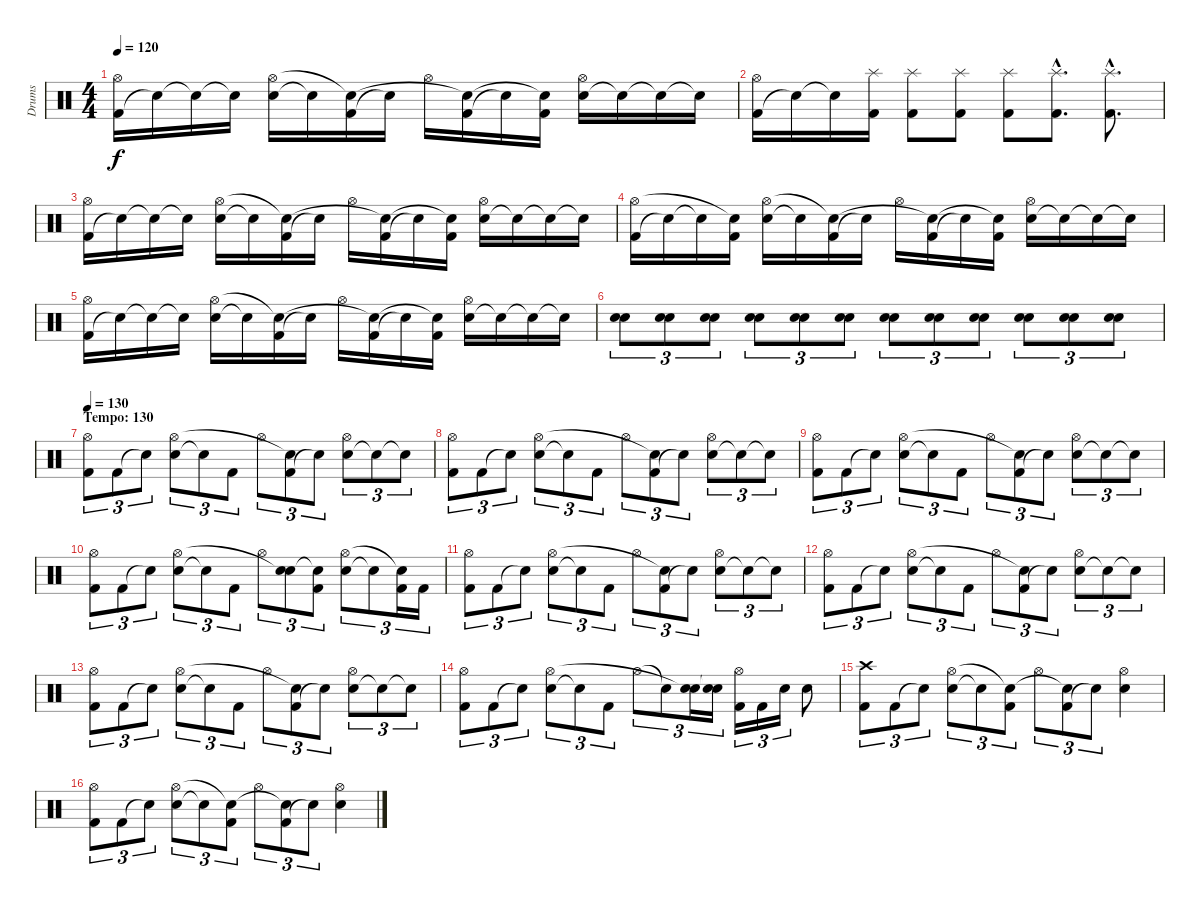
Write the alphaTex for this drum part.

\track ("Drums" "Drums") {instrument percussion}
\staff {score}
\articulation defaults
\ts (4 4)
\tempo 120
\clef neutral
\ks c
("Kick (hit) 2" "Hi-Hat (open)").16{dy f} "Snare (hit)"{t}.16 "Snare (hit)"{t}.16 "Snare (hit)"{t}.16 ("Snare (hit) 2" "Hi-Hat (open)").16 "Snare (hit)"{t}.16 ("Kick (hit) 2" "Snare (hit)"{t}).16 "Snare (hit)"{t}.16 "Hi-Hat (open)".16 ("Kick (hit) 2" "Snare (hit)"{t}).16 "Snare (hit)"{t}.16 ("Kick (hit) 2" "Snare (hit)"{t}).16 ("Snare (hit) 2" "Hi-Hat (open)").16 "Snare (hit)"{t}.16 "Snare (hit)"{t}.16 "Snare (hit)"{t}.16 |
("Kick (hit) 2" "Hi-Hat (open)").16 "Snare (hit)"{t}.16 "Snare (hit)"{t}.16 ("Kick (hit) 2" "Splash (hit)").16 ("Kick (hit) 2" "Splash (hit)").8 ("Kick (hit) 2" "Splash (hit)").8 ("Kick (hit) 2" "Splash (hit)").8 ("Kick (hit) 2"{hac} "Splash (hit)"{hac}).8{d} ("Kick (hit) 2"{hac} "Splash (hit)"{hac}).8{d} |
("Kick (hit) 2" "Hi-Hat (open)").16 "Snare (hit)"{t}.16 "Snare (hit)"{t}.16 "Snare (hit)"{t}.16 ("Snare (hit) 2" "Hi-Hat (open)").16 "Snare (hit)"{t}.16 ("Kick (hit) 2" "Snare (hit)"{t}).16 "Snare (hit)"{t}.16 "Hi-Hat (open)".16 ("Kick (hit) 2" "Snare (hit)"{t}).16 "Snare (hit)"{t}.16 ("Kick (hit) 2" "Snare (hit)"{t}).16 ("Snare (hit) 2" "Hi-Hat (open)").16 "Snare (hit)"{t}.16 "Snare (hit)"{t}.16 "Snare (hit)"{t}.16 |
("Kick (hit) 2" "Hi-Hat (open)").16 "Snare (hit)"{t}.16 "Snare (hit)"{t}.16 ("Kick (hit) 2" "Snare (hit)"{t}).16 ("Snare (hit) 2" "Hi-Hat (open)").16 "Snare (hit)"{t}.16 ("Kick (hit) 2" "Snare (hit)"{t}).16 "Snare (hit)"{t}.16 "Hi-Hat (open)".16 ("Kick (hit) 2" "Snare (hit)"{t}).16 "Snare (hit)"{t}.16 ("Kick (hit) 2" "Snare (hit)"{t}).16 ("Snare (hit) 2" "Hi-Hat (open)").16 "Snare (hit)"{t}.16 "Snare (hit)"{t}.16 "Snare (hit)"{t}.16 |
("Kick (hit) 2" "Hi-Hat (open)").16 "Snare (hit)"{t}.16 "Snare (hit)"{t}.16 "Snare (hit)"{t}.16 ("Snare (hit) 2" "Hi-Hat (open)").16 "Snare (hit)"{t}.16 ("Kick (hit) 2" "Snare (hit)"{t}).16 "Snare (hit)"{t}.16 "Hi-Hat (open)".16 ("Kick (hit) 2" "Snare (hit)"{t}).16 "Snare (hit)"{t}.16 ("Kick (hit) 2" "Snare (hit)"{t}).16 ("Snare (hit) 2" "Hi-Hat (open)").16 "Snare (hit)"{t}.16 "Snare (hit)"{t}.16 "Snare (hit)"{t}.16 |
("Snare (hit) 2" "Snare (hit) 2").8{tu (3 2)} ("Snare (hit) 2" "Snare (hit) 2").8{tu (3 2)} ("Snare (hit) 2" "Snare (hit) 2").8{tu (3 2)} ("Snare (hit) 2" "Snare (hit) 2").8{tu (3 2)} ("Snare (hit) 2" "Snare (hit) 2").8{tu (3 2)} ("Snare (hit) 2" "Snare (hit) 2").8{tu (3 2)} ("Snare (hit) 2" "Snare (hit) 2").8{tu (3 2)} ("Snare (hit) 2" "Snare (hit) 2").8{tu (3 2)} ("Snare (hit) 2" "Snare (hit) 2").8{tu (3 2)} ("Snare (hit) 2" "Snare (hit) 2").8{tu (3 2)} ("Snare (hit) 2" "Snare (hit) 2").8{tu (3 2)} ("Snare (hit) 2" "Snare (hit) 2").8{tu (3 2)} |
\section ("" "Tempo: 130")
\tempo 130
("Kick (hit) 2" "Hi-Hat (open)").8{tu (3 2)} "Kick (hit) 2".8{tu (3 2)} "Snare (hit)"{t}.8{tu (3 2)} ("Snare (hit) 2" "Hi-Hat (open)").8{tu (3 2)} "Snare (hit)"{t}.8{tu (3 2)} "Kick (hit) 2".8{tu (3 2)} "Hi-Hat (open)".8{tu (3 2)} ("Kick (hit) 2" "Snare (hit)"{t}).8{tu (3 2)} "Snare (hit)"{t}.8{tu (3 2)} ("Snare (hit) 2" "Hi-Hat (open)").8{tu (3 2)} "Snare (hit)"{t}.8{tu (3 2)} "Snare (hit)"{t}.8{tu (3 2)} |
("Kick (hit) 2" "Hi-Hat (open)").8{tu (3 2)} "Kick (hit) 2".8{tu (3 2)} "Snare (hit)"{t}.8{tu (3 2)} ("Snare (hit) 2" "Hi-Hat (open)").8{tu (3 2)} "Snare (hit)"{t}.8{tu (3 2)} "Kick (hit) 2".8{tu (3 2)} "Hi-Hat (open)".8{tu (3 2)} ("Kick (hit) 2" "Snare (hit)"{t}).8{tu (3 2)} "Snare (hit)"{t}.8{tu (3 2)} ("Snare (hit) 2" "Hi-Hat (open)").8{tu (3 2)} "Snare (hit)"{t}.8{tu (3 2)} "Snare (hit)"{t}.8{tu (3 2)} |
("Kick (hit) 2" "Hi-Hat (open)").8{tu (3 2)} "Kick (hit) 2".8{tu (3 2)} "Snare (hit)"{t}.8{tu (3 2)} ("Snare (hit) 2" "Hi-Hat (open)").8{tu (3 2)} "Snare (hit)"{t}.8{tu (3 2)} "Kick (hit) 2".8{tu (3 2)} "Hi-Hat (open)".8{tu (3 2)} ("Kick (hit) 2" "Snare (hit)"{t}).8{tu (3 2)} "Snare (hit)"{t}.8{tu (3 2)} ("Snare (hit) 2" "Hi-Hat (open)").8{tu (3 2)} "Snare (hit)"{t}.8{tu (3 2)} "Snare (hit)"{t}.8{tu (3 2)} |
("Kick (hit) 2" "Hi-Hat (open)").8{tu (3 2)} "Kick (hit) 2".8{tu (3 2)} "Snare (hit)"{t}.8{tu (3 2)} ("Snare (hit) 2" "Hi-Hat (open)").8{tu (3 2)} "Snare (hit)"{t}.8{tu (3 2)} "Kick (hit) 2".8{tu (3 2)} "Hi-Hat (open)".8{tu (3 2)} ("Snare (hit) 2" "Snare (hit)"{t}).8{tu (3 2)} ("Kick (hit) 2" "Snare (hit)"{t}).8{tu (3 2)} ("Snare (hit) 2" "Hi-Hat (open)").8{tu (3 2)} "Snare (hit)"{t}.8{tu (3 2)} ("Kick (hit) 2" "Snare (hit)"{t}).16{tu (3 2)} "Kick (hit) 2".16{tu (3 2)} |
("Kick (hit) 2" "Hi-Hat (open)").8{tu (3 2)} "Kick (hit) 2".8{tu (3 2)} "Snare (hit)"{t}.8{tu (3 2)} ("Snare (hit) 2" "Hi-Hat (open)").8{tu (3 2)} "Snare (hit)"{t}.8{tu (3 2)} "Kick (hit) 2".8{tu (3 2)} "Hi-Hat (open)".8{tu (3 2)} ("Kick (hit) 2" "Snare (hit)"{t}).8{tu (3 2)} "Snare (hit)"{t}.8{tu (3 2)} ("Snare (hit) 2" "Hi-Hat (open)").8{tu (3 2)} "Snare (hit)"{t}.8{tu (3 2)} "Snare (hit)"{t}.8{tu (3 2)} |
("Kick (hit) 2" "Hi-Hat (open)").8{tu (3 2)} "Kick (hit) 2".8{tu (3 2)} "Snare (hit)"{t}.8{tu (3 2)} ("Snare (hit) 2" "Hi-Hat (open)").8{tu (3 2)} "Snare (hit)"{t}.8{tu (3 2)} "Kick (hit) 2".8{tu (3 2)} "Hi-Hat (open)".8{tu (3 2)} ("Kick (hit) 2" "Snare (hit)"{t}).8{tu (3 2)} "Snare (hit)"{t}.8{tu (3 2)} ("Snare (hit) 2" "Hi-Hat (open)").8{tu (3 2)} "Snare (hit)"{t}.8{tu (3 2)} "Snare (hit)"{t}.8{tu (3 2)} |
("Kick (hit) 2" "Hi-Hat (open)").8{tu (3 2)} "Kick (hit) 2".8{tu (3 2)} "Snare (hit)"{t}.8{tu (3 2)} ("Snare (hit) 2" "Hi-Hat (open)").8{tu (3 2)} "Snare (hit)"{t}.8{tu (3 2)} "Kick (hit) 2".8{tu (3 2)} "Hi-Hat (open)".8{tu (3 2)} ("Kick (hit) 2" "Snare (hit)"{t}).8{tu (3 2)} "Snare (hit)"{t}.8{tu (3 2)} ("Snare (hit) 2" "Hi-Hat (open)").8{tu (3 2)} "Snare (hit)"{t}.8{tu (3 2)} "Snare (hit)"{t}.8{tu (3 2)} |
("Kick (hit) 2" "Hi-Hat (open)").8{tu (3 2)} "Kick (hit) 2".8{tu (3 2)} "Snare (hit)"{t}.8{tu (3 2)} ("Snare (hit) 2" "Hi-Hat (open)").8{tu (3 2)} "Snare (hit)"{t}.8{tu (3 2)} "Kick (hit) 2".8{tu (3 2)} "Hi-Hat (open)".8{tu (3 2)} "Snare (hit)"{t}.8{tu (3 2)} ("Snare (hit) 2" "Snare (hit)"{t}).16{tu (3 2)} ("Snare (hit) 2" "Snare (hit)"{t}).16{tu (3 2)} ("Kick (hit) 2" "Hi-Hat (open)").16{tu (3 2)} "Kick (hit) 2".16{tu (3 2)} "Snare (hit) 2".16{tu (3 2)} "Snare (hit) 2".8 |
("Kick (hit) 2" "Crash high (hit)").8{tu (3 2)} "Kick (hit) 2".8{tu (3 2)} "Snare (hit)"{t}.8{tu (3 2)} ("Snare (hit) 2" "Hi-Hat (open)").8{tu (3 2)} "Snare (hit)"{t}.8{tu (3 2)} ("Kick (hit) 2" "Snare (hit)"{t}).8{tu (3 2)} "Hi-Hat (open)".8{tu (3 2)} ("Kick (hit) 2" "Snare (hit)"{t}).8{tu (3 2)} "Snare (hit)"{t}.8{tu (3 2)} ("Snare (hit) 2" "Hi-Hat (open)").4 |
("Kick (hit) 2" "Hi-Hat (open)").8{tu (3 2)} "Kick (hit) 2".8{tu (3 2)} "Snare (hit)"{t}.8{tu (3 2)} ("Snare (hit) 2" "Hi-Hat (open)").8{tu (3 2)} "Snare (hit)"{t}.8{tu (3 2)} ("Kick (hit) 2" "Snare (hit)"{t}).8{tu (3 2)} "Hi-Hat (open)".8{tu (3 2)} ("Kick (hit) 2" "Snare (hit)"{t}).8{tu (3 2)} "Snare (hit)"{t}.8{tu (3 2)} ("Snare (hit) 2" "Hi-Hat (open)").4
